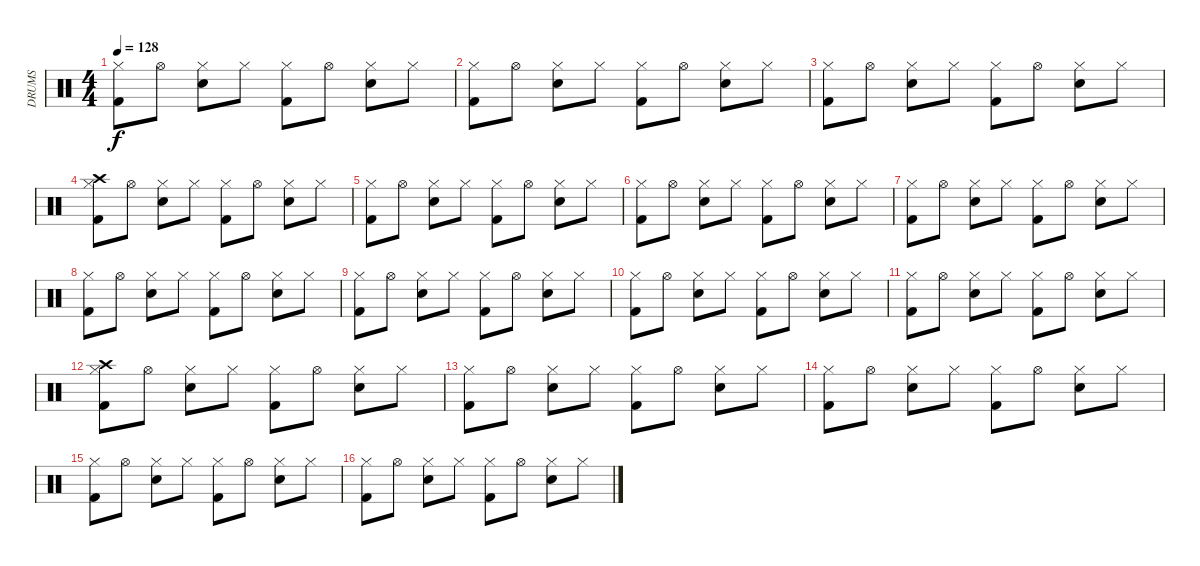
\track ("DRUMS" "DRUMS") {instrument percussion}
\staff {score}
\articulation defaults
\ts (4 4)
\tempo 128
\clef neutral
\ks c
("Kick (hit) 2" "Hi-Hat (closed)").8{dy f} "Hi-Hat (open)".8 ("Electric Snare (hit)" "Hi-Hat (closed)").8 "Hi-Hat (closed)".8 ("Kick (hit) 2" "Hi-Hat (closed)").8 "Hi-Hat (open)".8 ("Electric Snare (hit)" "Hi-Hat (closed)").8 "Hi-Hat (closed)".8 |
("Kick (hit) 2" "Hi-Hat (closed)").8 "Hi-Hat (open)".8 ("Electric Snare (hit)" "Hi-Hat (closed)").8 "Hi-Hat (closed)".8 ("Kick (hit) 2" "Hi-Hat (closed)").8 "Hi-Hat (open)".8 ("Electric Snare (hit)" "Hi-Hat (closed)").8 "Hi-Hat (closed)".8 |
("Kick (hit) 2" "Hi-Hat (closed)").8 "Hi-Hat (open)".8 ("Electric Snare (hit)" "Hi-Hat (closed)").8 "Hi-Hat (closed)".8 ("Kick (hit) 2" "Hi-Hat (closed)").8 "Hi-Hat (open)".8 ("Electric Snare (hit)" "Hi-Hat (closed)").8 "Hi-Hat (closed)".8 |
("Kick (hit) 2" "Hi-Hat (closed)" "Crash high (hit)").8 "Hi-Hat (open)".8 ("Electric Snare (hit)" "Hi-Hat (closed)").8 "Hi-Hat (closed)".8 ("Kick (hit) 2" "Hi-Hat (closed)").8 "Hi-Hat (open)".8 ("Electric Snare (hit)" "Hi-Hat (closed)").8 "Hi-Hat (closed)".8 |
("Kick (hit) 2" "Hi-Hat (closed)").8 "Hi-Hat (open)".8 ("Electric Snare (hit)" "Hi-Hat (closed)").8 "Hi-Hat (closed)".8 ("Kick (hit) 2" "Hi-Hat (closed)").8 "Hi-Hat (open)".8 ("Electric Snare (hit)" "Hi-Hat (closed)").8 "Hi-Hat (closed)".8 |
("Kick (hit) 2" "Hi-Hat (closed)").8 "Hi-Hat (open)".8 ("Electric Snare (hit)" "Hi-Hat (closed)").8 "Hi-Hat (closed)".8 ("Kick (hit) 2" "Hi-Hat (closed)").8 "Hi-Hat (open)".8 ("Electric Snare (hit)" "Hi-Hat (closed)").8 "Hi-Hat (closed)".8 |
("Kick (hit) 2" "Hi-Hat (closed)").8 "Hi-Hat (open)".8 ("Electric Snare (hit)" "Hi-Hat (closed)").8 "Hi-Hat (closed)".8 ("Kick (hit) 2" "Hi-Hat (closed)").8 "Hi-Hat (open)".8 ("Electric Snare (hit)" "Hi-Hat (closed)").8 "Hi-Hat (closed)".8 |
("Kick (hit) 2" "Hi-Hat (closed)").8 "Hi-Hat (open)".8 ("Electric Snare (hit)" "Hi-Hat (closed)").8 "Hi-Hat (closed)".8 ("Kick (hit) 2" "Hi-Hat (closed)").8 "Hi-Hat (open)".8 ("Electric Snare (hit)" "Hi-Hat (closed)").8 "Hi-Hat (closed)".8 |
("Kick (hit) 2" "Hi-Hat (closed)").8 "Hi-Hat (open)".8 ("Electric Snare (hit)" "Hi-Hat (closed)").8 "Hi-Hat (closed)".8 ("Kick (hit) 2" "Hi-Hat (closed)").8 "Hi-Hat (open)".8 ("Electric Snare (hit)" "Hi-Hat (closed)").8 "Hi-Hat (closed)".8 |
("Kick (hit) 2" "Hi-Hat (closed)").8 "Hi-Hat (open)".8 ("Electric Snare (hit)" "Hi-Hat (closed)").8 "Hi-Hat (closed)".8 ("Kick (hit) 2" "Hi-Hat (closed)").8 "Hi-Hat (open)".8 ("Electric Snare (hit)" "Hi-Hat (closed)").8 "Hi-Hat (closed)".8 |
("Kick (hit) 2" "Hi-Hat (closed)").8 "Hi-Hat (open)".8 ("Electric Snare (hit)" "Hi-Hat (closed)").8 "Hi-Hat (closed)".8 ("Kick (hit) 2" "Hi-Hat (closed)").8 "Hi-Hat (open)".8 ("Electric Snare (hit)" "Hi-Hat (closed)").8 "Hi-Hat (closed)".8 |
("Kick (hit) 2" "Hi-Hat (closed)" "Crash high (hit)").8 "Hi-Hat (open)".8 ("Electric Snare (hit)" "Hi-Hat (closed)").8 "Hi-Hat (closed)".8 ("Kick (hit) 2" "Hi-Hat (closed)").8 "Hi-Hat (open)".8 ("Electric Snare (hit)" "Hi-Hat (closed)").8 "Hi-Hat (closed)".8 |
("Kick (hit) 2" "Hi-Hat (closed)").8 "Hi-Hat (open)".8 ("Electric Snare (hit)" "Hi-Hat (closed)").8 "Hi-Hat (closed)".8 ("Kick (hit) 2" "Hi-Hat (closed)").8 "Hi-Hat (open)".8 ("Electric Snare (hit)" "Hi-Hat (closed)").8 "Hi-Hat (closed)".8 |
("Kick (hit) 2" "Hi-Hat (closed)").8 "Hi-Hat (open)".8 ("Electric Snare (hit)" "Hi-Hat (closed)").8 "Hi-Hat (closed)".8 ("Kick (hit) 2" "Hi-Hat (closed)").8 "Hi-Hat (open)".8 ("Electric Snare (hit)" "Hi-Hat (closed)").8 "Hi-Hat (closed)".8 |
("Kick (hit) 2" "Hi-Hat (closed)").8 "Hi-Hat (open)".8 ("Electric Snare (hit)" "Hi-Hat (closed)").8 "Hi-Hat (closed)".8 ("Kick (hit) 2" "Hi-Hat (closed)").8 "Hi-Hat (open)".8 ("Electric Snare (hit)" "Hi-Hat (closed)").8 "Hi-Hat (closed)".8 |
("Kick (hit) 2" "Hi-Hat (closed)").8 "Hi-Hat (open)".8 ("Electric Snare (hit)" "Hi-Hat (closed)").8 "Hi-Hat (closed)".8 ("Kick (hit) 2" "Hi-Hat (closed)").8 "Hi-Hat (open)".8 ("Electric Snare (hit)" "Hi-Hat (closed)").8 "Hi-Hat (closed)".8
